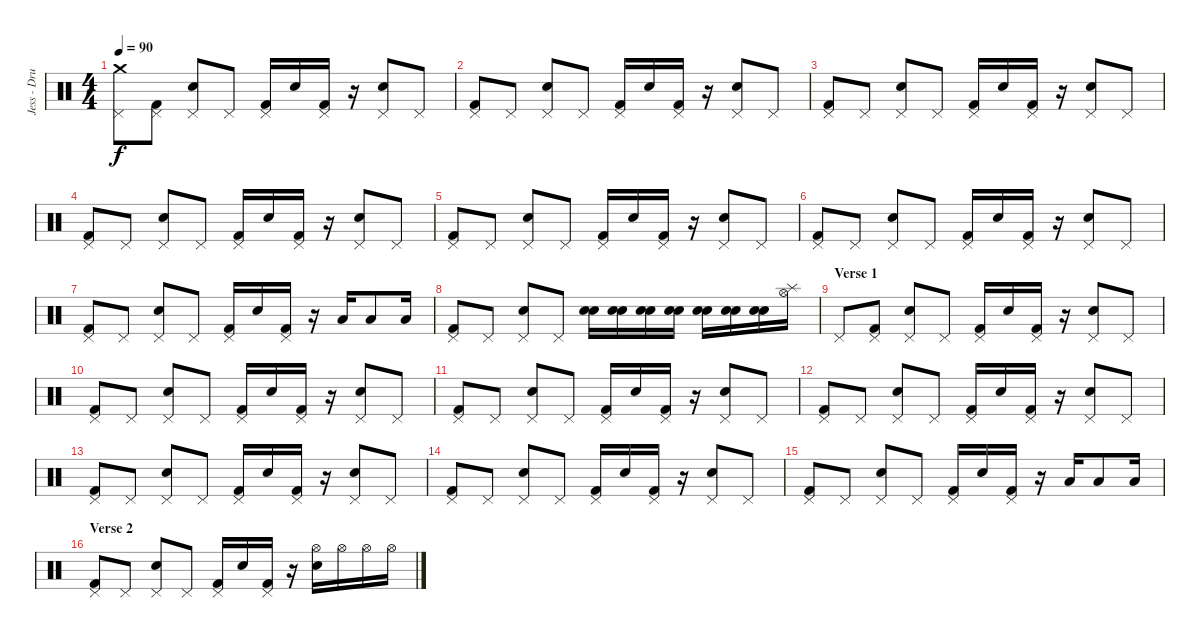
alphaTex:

\track ("Jess - Drums" "Jess - Dru") {instrument percussion}
\staff {score}
\articulation defaults
\ts (4 4)
\tempo 90
\clef neutral
\ks c
("Crash medium (hit)" "Pedal Hi-Hat (hit)").8{dy f} ("Pedal Hi-Hat (hit)" "Kick (hit) 2").8 ("Pedal Hi-Hat (hit)" "Electric Snare (hit)").8 "Pedal Hi-Hat (hit)".8 ("Pedal Hi-Hat (hit)" "Kick (hit) 2").16 "Electric Snare (hit)".16 ("Pedal Hi-Hat (hit)" "Kick (hit) 2").16 r.16 ("Pedal Hi-Hat (hit)" "Electric Snare (hit)").8 "Pedal Hi-Hat (hit)".8 |
("Pedal Hi-Hat (hit)" "Kick (hit) 2").8 "Pedal Hi-Hat (hit)".8 ("Pedal Hi-Hat (hit)" "Electric Snare (hit)").8 "Pedal Hi-Hat (hit)".8 ("Pedal Hi-Hat (hit)" "Kick (hit) 2").16 "Electric Snare (hit)".16 ("Pedal Hi-Hat (hit)" "Kick (hit) 2").16 r.16 ("Pedal Hi-Hat (hit)" "Electric Snare (hit)").8 "Pedal Hi-Hat (hit)".8 |
("Pedal Hi-Hat (hit)" "Kick (hit) 2").8 "Pedal Hi-Hat (hit)".8 ("Pedal Hi-Hat (hit)" "Electric Snare (hit)").8 "Pedal Hi-Hat (hit)".8 ("Pedal Hi-Hat (hit)" "Kick (hit) 2").16 "Electric Snare (hit)".16 ("Pedal Hi-Hat (hit)" "Kick (hit) 2").16 r.16 ("Pedal Hi-Hat (hit)" "Electric Snare (hit)").8 "Pedal Hi-Hat (hit)".8 |
("Pedal Hi-Hat (hit)" "Kick (hit) 2").8 "Pedal Hi-Hat (hit)".8 ("Pedal Hi-Hat (hit)" "Electric Snare (hit)").8 "Pedal Hi-Hat (hit)".8 ("Pedal Hi-Hat (hit)" "Kick (hit) 2").16 "Electric Snare (hit)".16 ("Pedal Hi-Hat (hit)" "Kick (hit) 2").16 r.16 ("Pedal Hi-Hat (hit)" "Electric Snare (hit)").8 "Pedal Hi-Hat (hit)".8 |
("Pedal Hi-Hat (hit)" "Kick (hit) 2").8 "Pedal Hi-Hat (hit)".8 ("Pedal Hi-Hat (hit)" "Electric Snare (hit)").8 "Pedal Hi-Hat (hit)".8 ("Pedal Hi-Hat (hit)" "Kick (hit) 2").16 "Electric Snare (hit)".16 ("Pedal Hi-Hat (hit)" "Kick (hit) 2").16 r.16 ("Pedal Hi-Hat (hit)" "Electric Snare (hit)").8 "Pedal Hi-Hat (hit)".8 |
("Pedal Hi-Hat (hit)" "Kick (hit) 2").8 "Pedal Hi-Hat (hit)".8 ("Pedal Hi-Hat (hit)" "Electric Snare (hit)").8 "Pedal Hi-Hat (hit)".8 ("Pedal Hi-Hat (hit)" "Kick (hit) 2").16 "Electric Snare (hit)".16 ("Pedal Hi-Hat (hit)" "Kick (hit) 2").16 r.16 ("Pedal Hi-Hat (hit)" "Electric Snare (hit)").8 "Pedal Hi-Hat (hit)".8 |
("Pedal Hi-Hat (hit)" "Kick (hit) 2").8 "Pedal Hi-Hat (hit)".8 ("Pedal Hi-Hat (hit)" "Electric Snare (hit)").8 "Pedal Hi-Hat (hit)".8 ("Pedal Hi-Hat (hit)" "Kick (hit) 2").16 "Electric Snare (hit)".16 ("Pedal Hi-Hat (hit)" "Kick (hit) 2").16 r.16 "Low Tom (hit)".16 "Low Tom (hit)".8 "Low Floor Tom (hit)".16 |
("Pedal Hi-Hat (hit)" "Kick (hit) 2").8 "Pedal Hi-Hat (hit)".8 ("Pedal Hi-Hat (hit)" "Electric Snare (hit)").8 "Pedal Hi-Hat (hit)".8 ("Snare (hit) 2" "Electric Snare (hit)").16 ("Snare (hit) 2" "Electric Snare (hit)").16 ("Snare (hit) 2" "Electric Snare (hit)").16 ("Snare (hit) 2" "Electric Snare (hit)").16 ("Snare (hit) 2" "Electric Snare (hit)").16 ("Snare (hit) 2" "Electric Snare (hit)").16 ("Snare (hit) 2" "Electric Snare (hit)").16 ("Splash (hit)" "Hi-Hat (open)").16 |
\section ("" "Verse 1 ")
"Pedal Hi-Hat (hit)".8 ("Pedal Hi-Hat (hit)" "Kick (hit) 2").8 ("Pedal Hi-Hat (hit)" "Electric Snare (hit)").8 "Pedal Hi-Hat (hit)".8 ("Pedal Hi-Hat (hit)" "Kick (hit) 2").16 "Electric Snare (hit)".16 ("Pedal Hi-Hat (hit)" "Kick (hit) 2").16 r.16 ("Pedal Hi-Hat (hit)" "Electric Snare (hit)").8 "Pedal Hi-Hat (hit)".8 |
("Pedal Hi-Hat (hit)" "Kick (hit) 2").8 "Pedal Hi-Hat (hit)".8 ("Pedal Hi-Hat (hit)" "Electric Snare (hit)").8 "Pedal Hi-Hat (hit)".8 ("Pedal Hi-Hat (hit)" "Kick (hit) 2").16 "Electric Snare (hit)".16 ("Pedal Hi-Hat (hit)" "Kick (hit) 2").16 r.16 ("Pedal Hi-Hat (hit)" "Electric Snare (hit)").8 "Pedal Hi-Hat (hit)".8 |
("Pedal Hi-Hat (hit)" "Kick (hit) 2").8 "Pedal Hi-Hat (hit)".8 ("Pedal Hi-Hat (hit)" "Electric Snare (hit)").8 "Pedal Hi-Hat (hit)".8 ("Pedal Hi-Hat (hit)" "Kick (hit) 2").16 "Electric Snare (hit)".16 ("Pedal Hi-Hat (hit)" "Kick (hit) 2").16 r.16 ("Pedal Hi-Hat (hit)" "Electric Snare (hit)").8 "Pedal Hi-Hat (hit)".8 |
("Pedal Hi-Hat (hit)" "Kick (hit) 2").8 "Pedal Hi-Hat (hit)".8 ("Pedal Hi-Hat (hit)" "Electric Snare (hit)").8 "Pedal Hi-Hat (hit)".8 ("Pedal Hi-Hat (hit)" "Kick (hit) 2").16 "Electric Snare (hit)".16 ("Pedal Hi-Hat (hit)" "Kick (hit) 2").16 r.16 ("Pedal Hi-Hat (hit)" "Electric Snare (hit)").8 "Pedal Hi-Hat (hit)".8 |
("Pedal Hi-Hat (hit)" "Kick (hit) 2").8 "Pedal Hi-Hat (hit)".8 ("Pedal Hi-Hat (hit)" "Electric Snare (hit)").8 "Pedal Hi-Hat (hit)".8 ("Pedal Hi-Hat (hit)" "Kick (hit) 2").16 "Electric Snare (hit)".16 ("Pedal Hi-Hat (hit)" "Kick (hit) 2").16 r.16 ("Pedal Hi-Hat (hit)" "Electric Snare (hit)").8 "Pedal Hi-Hat (hit)".8 |
("Pedal Hi-Hat (hit)" "Kick (hit) 2").8 "Pedal Hi-Hat (hit)".8 ("Pedal Hi-Hat (hit)" "Electric Snare (hit)").8 "Pedal Hi-Hat (hit)".8 ("Pedal Hi-Hat (hit)" "Kick (hit) 2").16 "Electric Snare (hit)".16 ("Pedal Hi-Hat (hit)" "Kick (hit) 2").16 r.16 ("Pedal Hi-Hat (hit)" "Electric Snare (hit)").8 "Pedal Hi-Hat (hit)".8 |
("Pedal Hi-Hat (hit)" "Kick (hit) 2").8 "Pedal Hi-Hat (hit)".8 ("Pedal Hi-Hat (hit)" "Electric Snare (hit)").8 "Pedal Hi-Hat (hit)".8 ("Pedal Hi-Hat (hit)" "Kick (hit) 2").16 "Electric Snare (hit)".16 ("Pedal Hi-Hat (hit)" "Kick (hit) 2").16 r.16 "Low Tom (hit)".16 "Low Tom (hit)".8 "Low Floor Tom (hit)".16 |
\section ("" "Verse 2 ")
("Pedal Hi-Hat (hit)" "Kick (hit) 2").8 "Pedal Hi-Hat (hit)".8 ("Pedal Hi-Hat (hit)" "Electric Snare (hit)").8 "Pedal Hi-Hat (hit)".8 ("Pedal Hi-Hat (hit)" "Kick (hit) 2").16 "Electric Snare (hit)".16 ("Pedal Hi-Hat (hit)" "Kick (hit) 2").16 r.16 ("Hi-Hat (open)" "Electric Snare (hit)").16 "Hi-Hat (open)".16 "Hi-Hat (open)".16 "Hi-Hat (open)".16
